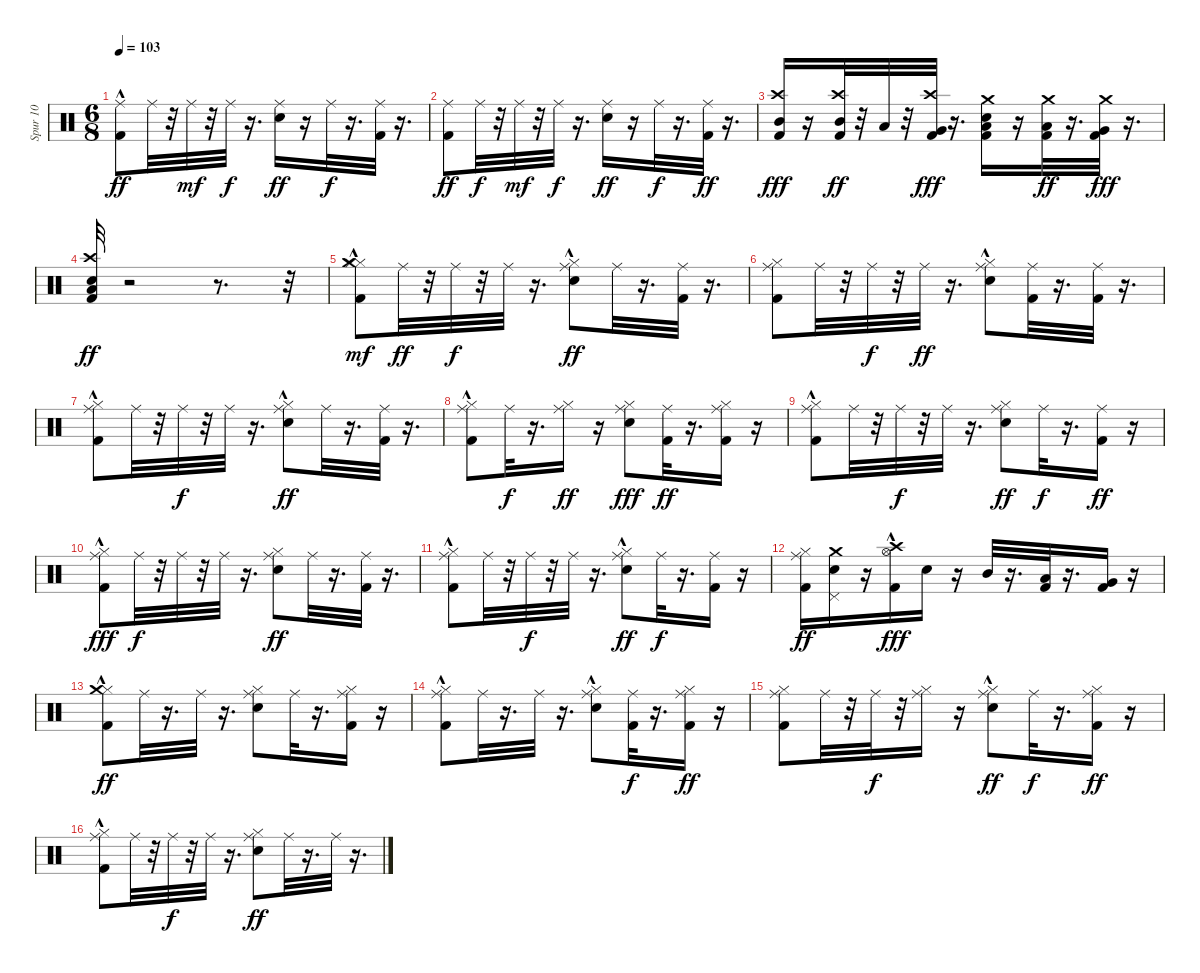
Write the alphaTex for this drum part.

\track ("Spur 10" "Spur 10") {instrument percussion}
\staff {score}
\articulation defaults
\ts (6 8)
\tempo 103
\clef neutral
\ks c
("Kick (hit) 2"{hac} "Ride (middle)").8{dy ff} "Ride (middle)".32 r.32 "Ride (middle)".32{dy mf} r.32 "Ride (middle)".32{dy f} r.16{d} ("Snare (hit) 2" "Ride (middle)").16{dy ff} r.16 "Ride (middle)".32{dy f} r.16{d} ("Kick (hit) 2" "Ride (middle)").32 r.16{d} |
("Kick (hit) 2" "Ride (middle)").8{dy ff} "Ride (middle)".32{dy f} r.32 "Ride (middle)".32{dy mf} r.32 "Ride (middle)".32{dy f} r.16{d} ("Snare (hit) 2" "Ride (middle)").16{dy ff} r.16 "Ride (middle)".32{dy f} r.16{d} ("Kick (hit) 2" "Ride (middle)").32{dy ff} r.16{d} |
("Kick (hit) 2" "Crash high (hit)" "Mid Tom (hit)").16{dy fff} r.16 ("Kick (hit) 2" "Crash high (hit)" "Mid Tom (hit)").32{dy ff} r.32 "Low Tom (hit)".32 r.32 ("Kick (hit) 2" "Crash high (hit)" "Very Low Tom (hit)").32{dy fff} r.16{d} ("Kick (hit) 2" "Snare (hit) 2" "Crash medium (hit)" "Low Tom (hit)").16 r.16 ("Kick (hit) 2" "Crash medium (hit)" "Low Tom (hit)").32{dy ff} r.16{d} ("Kick (hit) 2" "Crash medium (hit)" "Very Low Tom (hit)").32{dy fff} r.16{d} |
("Kick (hit) 2" "Snare (hit) 2" "Crash high (hit)" "Low Floor Tom (hit)").32{dy ff} r.2 r.8{d} r.32 |
("Kick (hit) 2"{hac} "Hi-Hat (closed)" "Hi-Hat (closed)" "Crash medium (hit)").8{dy mf} "Ride (middle)".32{dy ff} r.32 "Ride (middle)".32{dy f} r.32 "Ride (middle)".32 r.16{d} ("Snare (hit) 2"{hac} "Hi-Hat (closed)" "Ride (middle)").8{dy ff} "Ride (middle)".32 r.16{d} ("Kick (hit) 2" "Ride (middle)").32 r.16{d} |
("Kick (hit) 2" "Hi-Hat (closed)" "Ride (middle)").8 "Ride (middle)".32 r.32 "Ride (middle)".32{dy f} r.32 "Ride (middle)".32{dy ff} r.16{d} ("Snare (hit) 2"{hac} "Hi-Hat (closed)" "Ride (middle)").8 ("Kick (hit) 2" "Ride (middle)").32 r.16{d} ("Kick (hit) 2" "Ride (middle)").32 r.16{d} |
("Kick (hit) 2"{hac} "Hi-Hat (closed)"{hac} "Ride (middle)").8 "Ride (middle)".32 r.32 "Ride (middle)".32{dy f} r.32 "Ride (middle)".32 r.16{d} ("Snare (hit) 2" "Hi-Hat (closed)"{hac} "Ride (middle)").8{dy ff} "Ride (middle)".32 r.16{d} ("Kick (hit) 2" "Ride (middle)").32 r.16{d} |
("Kick (hit) 2"{hac} "Hi-Hat (closed)" "Ride (middle)").8 "Ride (middle)".32{dy f} r.16{d} ("Hi-Hat (closed)" "Ride (middle)").16{dy ff} r.16 ("Snare (hit) 2" "Hi-Hat (closed)" "Ride (middle)").8{dy fff} ("Kick (hit) 2" "Ride (middle)").32{dy ff} r.16{d} ("Kick (hit) 2" "Hi-Hat (closed)" "Ride (middle)").16 r.16 |
("Kick (hit) 2"{hac} "Hi-Hat (closed)" "Ride (middle)").8 "Ride (middle)".32 r.32 "Ride (middle)".32{dy f} r.32 "Ride (middle)".32 r.16{d} ("Snare (hit) 2" "Hi-Hat (closed)" "Ride (middle)").8{dy ff} "Ride (middle)".32{dy f} r.16{d} ("Kick (hit) 2" "Ride (middle)").16{dy ff} r.16 |
("Kick (hit) 2"{hac} "Hi-Hat (closed)"{hac} "Ride (middle)").8{dy fff} "Ride (middle)".32{dy f} r.32 "Ride (middle)".32 r.32 "Ride (middle)".32 r.16{d} ("Snare (hit) 2" "Hi-Hat (closed)" "Ride (middle)").8{dy ff} "Ride (middle)".32 r.16{d} ("Kick (hit) 2" "Ride (middle)").32 r.16{d} |
("Kick (hit) 2"{hac} "Hi-Hat (closed)"{hac} "Ride (middle)").8 "Ride (middle)".32 r.32 "Ride (middle)".32{dy f} r.32 "Ride (middle)".32 r.16{d} ("Snare (hit) 2"{hac} "Hi-Hat (closed)" "Ride (middle)").8{dy ff} "Ride (middle)".32{dy f} r.16{d} ("Kick (hit) 2" "Ride (middle)").16 r.16 |
("Kick (hit) 2" "Hi-Hat (closed)" "Ride (middle)").16{dy ff} ("Snare (hit) 2" "Pedal Hi-Hat (hit)" "Crash medium (hit)").16 r.16 ("Kick (hit) 2"{hac} "Hi-Hat (open)" "Crash high (hit)").16{dy fff} "Snare (hit) 2".16 r.16 "Mid Tom (hit)".32 r.16{d} ("Kick (hit) 2" "Low Tom (hit)").32 r.16{d} ("Kick (hit) 2" "Very Low Tom (hit)").16 r.16 |
("Kick (hit) 2"{hac} "Hi-Hat (closed)" "Crash medium (hit)").8{dy ff} "Ride (middle)".32 r.16{d} "Ride (middle)".32 r.16{d} ("Snare (hit) 2" "Hi-Hat (closed)" "Ride (middle)").8 "Ride (middle)".32 r.16{d} ("Kick (hit) 2" "Hi-Hat (closed)" "Ride (middle)").16 r.16 |
("Kick (hit) 2"{hac} "Hi-Hat (closed)" "Ride (middle)").8 "Ride (middle)".32 r.16{d} "Ride (middle)".32 r.16{d} ("Snare (hit) 2"{hac} "Hi-Hat (closed)" "Ride (middle)").8 ("Kick (hit) 2" "Ride (middle)").32{dy f} r.16{d} ("Kick (hit) 2" "Hi-Hat (closed)" "Ride (middle)").16{dy ff} r.16 |
("Kick (hit) 2" "Hi-Hat (closed)" "Ride (middle)").8 "Ride (middle)".32 r.32 "Ride (middle)".32{dy f} r.32 ("Hi-Hat (closed)" "Ride (middle)").16 r.16 ("Snare (hit) 2"{hac} "Hi-Hat (closed)" "Ride (middle)").8{dy ff} "Ride (middle)".32{dy f} r.16{d} ("Kick (hit) 2" "Hi-Hat (closed)" "Ride (middle)").16{dy ff} r.16 |
("Kick (hit) 2"{hac} "Hi-Hat (closed)" "Ride (middle)").8 "Ride (middle)".32 r.32 "Ride (middle)".32{dy f} r.32 "Ride (middle)".32 r.16{d} ("Snare (hit) 2" "Hi-Hat (closed)" "Ride (middle)").8{dy ff} "Ride (middle)".32 r.16{d} "Ride (middle)".32 r.16{d}
